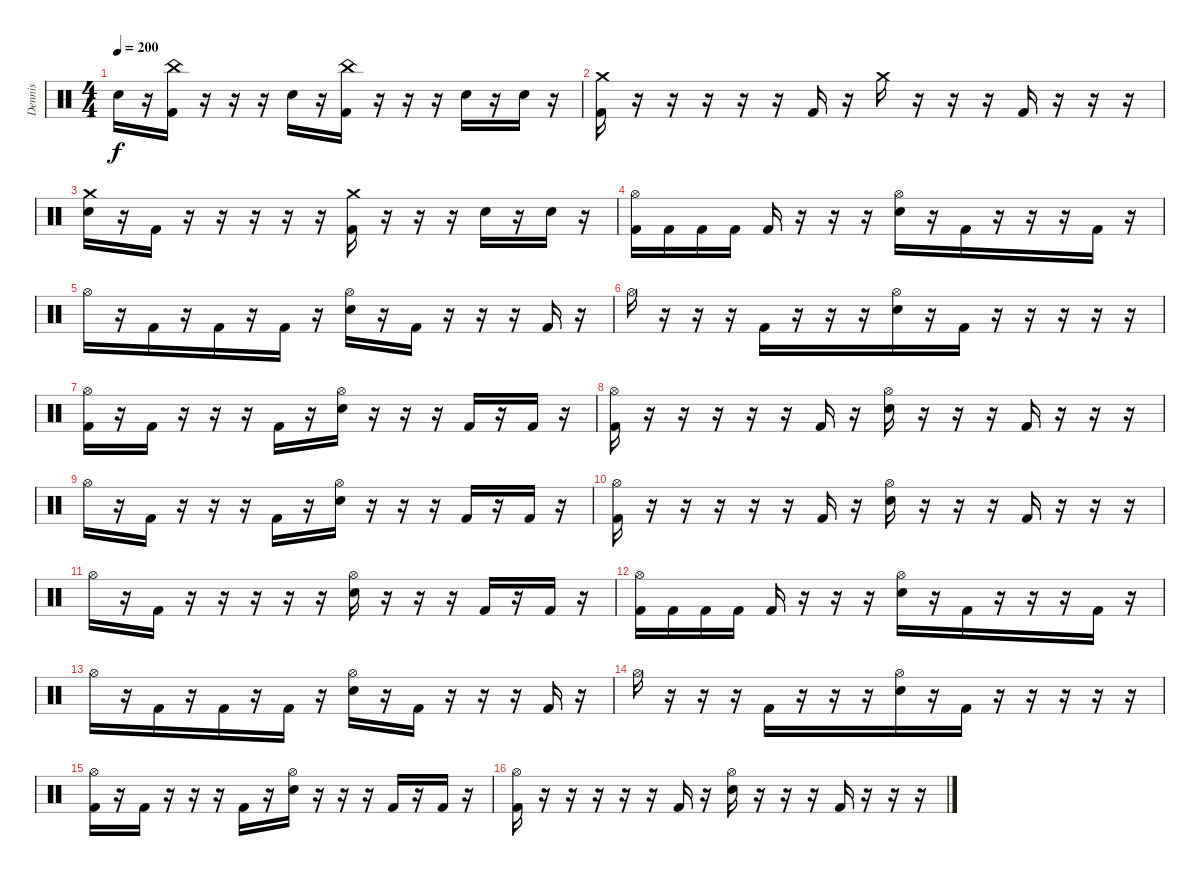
\track ("Dennis" "Dennis") {instrument percussion}
\staff {score}
\articulation defaults
\ts (4 4)
\tempo 200
\clef neutral
\ks c "Electric Snare (hit)".16{dy f beam merge}
r.16 ("China (hit)" "Kick (hit) 2").16 r.16 r.16{beam merge} r.16 "Electric Snare (hit)".16{beam merge} r.16{beam merge} ("China (hit)" "Kick (hit) 2").16 r.16 r.16 r.16{beam merge} "Electric Snare (hit)".16 r.16 "Electric Snare (hit)".16 r.16 |
("Crash medium (hit)" "Kick (hit) 2").16 r.16{beam merge} r.16{beam merge} r.16 r.16{beam merge} r.16{beam merge} "Kick (hit) 2".16 r.16 "Crash medium (hit)".16 r.16{beam merge} r.16 r.16 "Kick (hit) 2".16 r.16 r.16 r.16 |
("Crash medium (hit)" "Electric Snare (hit)").16{beam merge} r.16 "Kick (hit) 2".16 r.16 r.16{beam merge} r.16 r.16{beam merge} r.16{beam merge} ("Crash medium (hit)" "Kick (hit) 2").16 r.16 r.16 r.16{beam merge} "Electric Snare (hit)".16 r.16 "Electric Snare (hit)".16 r.16 |
("Hi-Hat (open)" "Kick (hit) 2").16 "Kick (hit) 2".16 "Kick (hit) 2".16 "Kick (hit) 2".16 "Kick (hit) 2".16 r.16 r.16 r.16 ("Hi-Hat (open)" "Electric Snare (hit)").16 r.16{beam merge} "Kick (hit) 2".16{beam merge} r.16 r.16{beam merge} r.16 "Kick (hit) 2".16 r.16 |
"Hi-Hat (open)".16 r.16{beam merge} "Kick (hit) 2".16{beam merge} r.16 "Kick (hit) 2".16{beam merge} r.16{beam merge} "Kick (hit) 2".16 r.16 ("Hi-Hat (open)" "Electric Snare (hit)").16 r.16{beam merge} "Kick (hit) 2".16 r.16 r.16 r.16 "Kick (hit) 2".16 r.16 |
"Hi-Hat (open)".16 r.16{beam merge} r.16{beam merge} r.16 "Kick (hit) 2".16{beam merge} r.16{beam merge} r.16 r.16 ("Hi-Hat (open)" "Electric Snare (hit)").16 r.16{beam merge} "Kick (hit) 2".16 r.16 r.16 r.16 r.16 r.16 |
("Hi-Hat (open)" "Kick (hit) 2").16{beam merge} r.16 "Kick (hit) 2".16 r.16 r.16{beam merge} r.16 "Kick (hit) 2".16{beam merge} r.16{beam merge} ("Hi-Hat (open)" "Electric Snare (hit)").16 r.16 r.16 r.16{beam merge} "Kick (hit) 2".16 r.16 "Kick (hit) 2".16 r.16 |
("Hi-Hat (open)" "Kick (hit) 2").16 r.16{beam merge} r.16{beam merge} r.16 r.16{beam merge} r.16{beam merge} "Kick (hit) 2".16 r.16 ("Hi-Hat (open)" "Electric Snare (hit)").16 r.16{beam merge} r.16 r.16 "Kick (hit) 2".16 r.16 r.16 r.16 |
"Hi-Hat (open)".16{beam merge} r.16 "Kick (hit) 2".16 r.16 r.16{beam merge} r.16 "Kick (hit) 2".16{beam merge} r.16{beam merge} ("Hi-Hat (open)" "Electric Snare (hit)").16 r.16 r.16 r.16{beam merge} "Kick (hit) 2".16 r.16 "Kick (hit) 2".16 r.16 |
("Hi-Hat (open)" "Kick (hit) 2").16 r.16{beam merge} r.16{beam merge} r.16 r.16{beam merge} r.16{beam merge} "Kick (hit) 2".16 r.16 ("Hi-Hat (open)" "Electric Snare (hit)").16 r.16{beam merge} r.16 r.16 "Kick (hit) 2".16 r.16 r.16 r.16 |
"Hi-Hat (open)".16{beam merge} r.16 "Kick (hit) 2".16 r.16 r.16{beam merge} r.16 r.16{beam merge} r.16{beam merge} ("Hi-Hat (open)" "Electric Snare (hit)").16 r.16 r.16 r.16{beam merge} "Kick (hit) 2".16 r.16 "Kick (hit) 2".16 r.16 |
("Hi-Hat (open)" "Kick (hit) 2").16 "Kick (hit) 2".16 "Kick (hit) 2".16 "Kick (hit) 2".16 "Kick (hit) 2".16 r.16 r.16 r.16 ("Hi-Hat (open)" "Electric Snare (hit)").16 r.16{beam merge} "Kick (hit) 2".16{beam merge} r.16 r.16{beam merge} r.16 "Kick (hit) 2".16 r.16 |
"Hi-Hat (open)".16 r.16{beam merge} "Kick (hit) 2".16{beam merge} r.16 "Kick (hit) 2".16{beam merge} r.16{beam merge} "Kick (hit) 2".16 r.16 ("Hi-Hat (open)" "Electric Snare (hit)").16 r.16{beam merge} "Kick (hit) 2".16 r.16 r.16 r.16 "Kick (hit) 2".16 r.16 |
"Hi-Hat (open)".16 r.16{beam merge} r.16{beam merge} r.16 "Kick (hit) 2".16{beam merge} r.16{beam merge} r.16 r.16 ("Hi-Hat (open)" "Electric Snare (hit)").16 r.16{beam merge} "Kick (hit) 2".16 r.16 r.16 r.16 r.16 r.16 |
("Hi-Hat (open)" "Kick (hit) 2").16{beam merge} r.16 "Kick (hit) 2".16 r.16 r.16{beam merge} r.16 "Kick (hit) 2".16{beam merge} r.16{beam merge} ("Hi-Hat (open)" "Electric Snare (hit)").16 r.16 r.16 r.16{beam merge} "Kick (hit) 2".16 r.16 "Kick (hit) 2".16 r.16 |
("Hi-Hat (open)" "Kick (hit) 2").16 r.16{beam merge} r.16{beam merge} r.16 r.16{beam merge} r.16{beam merge} "Kick (hit) 2".16 r.16 ("Hi-Hat (open)" "Electric Snare (hit)").16 r.16{beam merge} r.16 r.16 "Kick (hit) 2".16 r.16 r.16 r.16
